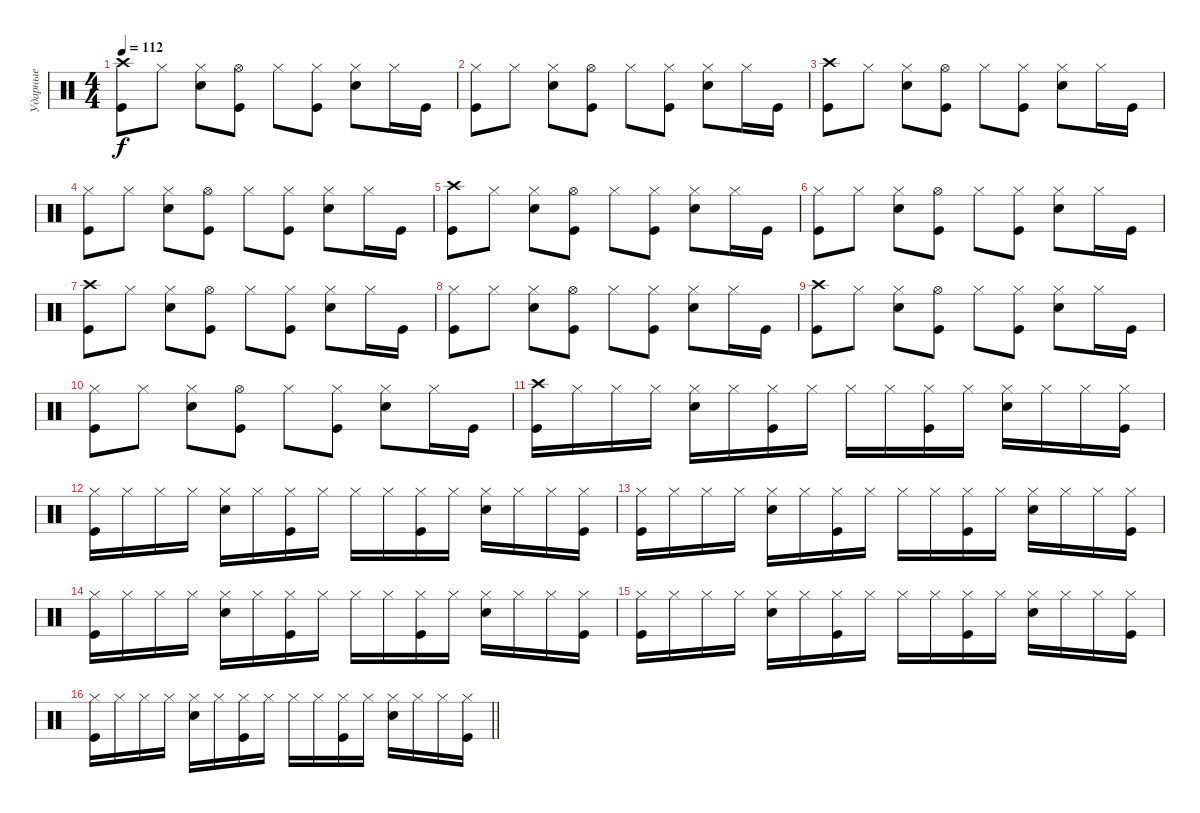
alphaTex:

\track ("Ударные" "Ударные") {instrument percussion}
\staff {score}
\articulation defaults
\ts (4 4)
\tempo 112
\clef neutral
\ks c
("Crash high (hit)" "Kick (hit)").8{dy f} "Hi-Hat (closed)".8 ("Hi-Hat (closed)" "Electric Snare (hit)").8 ("Hi-Hat (open)" "Kick (hit)").8 "Hi-Hat (closed)".8 ("Hi-Hat (closed)" "Kick (hit)").8 ("Hi-Hat (closed)" "Electric Snare (hit)").8 "Hi-Hat (closed)".16 "Kick (hit)".16 |
("Hi-Hat (closed)" "Kick (hit)").8 "Hi-Hat (closed)".8 ("Hi-Hat (closed)" "Electric Snare (hit)").8 ("Hi-Hat (open)" "Kick (hit)").8 "Hi-Hat (closed)".8 ("Hi-Hat (closed)" "Kick (hit)").8 ("Hi-Hat (closed)" "Electric Snare (hit)").8 "Hi-Hat (closed)".16 "Kick (hit)".16 |
("Crash high (hit)" "Kick (hit)").8 "Hi-Hat (closed)".8 ("Hi-Hat (closed)" "Electric Snare (hit)").8 ("Hi-Hat (open)" "Kick (hit)").8 "Hi-Hat (closed)".8 ("Hi-Hat (closed)" "Kick (hit)").8 ("Hi-Hat (closed)" "Electric Snare (hit)").8 "Hi-Hat (closed)".16 "Kick (hit)".16 |
("Hi-Hat (closed)" "Kick (hit)").8 "Hi-Hat (closed)".8 ("Hi-Hat (closed)" "Electric Snare (hit)").8 ("Hi-Hat (open)" "Kick (hit)").8 "Hi-Hat (closed)".8 ("Hi-Hat (closed)" "Kick (hit)").8 ("Hi-Hat (closed)" "Electric Snare (hit)").8 "Hi-Hat (closed)".16 "Kick (hit)".16 |
("Crash high (hit)" "Kick (hit)").8 "Hi-Hat (closed)".8 ("Hi-Hat (closed)" "Electric Snare (hit)").8 ("Hi-Hat (open)" "Kick (hit)").8 "Hi-Hat (closed)".8 ("Hi-Hat (closed)" "Kick (hit)").8 ("Hi-Hat (closed)" "Electric Snare (hit)").8 "Hi-Hat (closed)".16 "Kick (hit)".16 |
("Hi-Hat (closed)" "Kick (hit)").8 "Hi-Hat (closed)".8 ("Hi-Hat (closed)" "Electric Snare (hit)").8 ("Hi-Hat (open)" "Kick (hit)").8 "Hi-Hat (closed)".8 ("Hi-Hat (closed)" "Kick (hit)").8 ("Hi-Hat (closed)" "Electric Snare (hit)").8 "Hi-Hat (closed)".16 "Kick (hit)".16 |
("Crash high (hit)" "Kick (hit)").8 "Hi-Hat (closed)".8 ("Hi-Hat (closed)" "Electric Snare (hit)").8 ("Hi-Hat (open)" "Kick (hit)").8 "Hi-Hat (closed)".8 ("Hi-Hat (closed)" "Kick (hit)").8 ("Hi-Hat (closed)" "Electric Snare (hit)").8 "Hi-Hat (closed)".16 "Kick (hit)".16 |
("Hi-Hat (closed)" "Kick (hit)").8 "Hi-Hat (closed)".8 ("Hi-Hat (closed)" "Electric Snare (hit)").8 ("Hi-Hat (open)" "Kick (hit)").8 "Hi-Hat (closed)".8 ("Hi-Hat (closed)" "Kick (hit)").8 ("Hi-Hat (closed)" "Electric Snare (hit)").8 "Hi-Hat (closed)".16 "Kick (hit)".16 |
("Crash high (hit)" "Kick (hit)").8 "Hi-Hat (closed)".8 ("Hi-Hat (closed)" "Electric Snare (hit)").8 ("Hi-Hat (open)" "Kick (hit)").8 "Hi-Hat (closed)".8 ("Hi-Hat (closed)" "Kick (hit)").8 ("Hi-Hat (closed)" "Electric Snare (hit)").8 "Hi-Hat (closed)".16 "Kick (hit)".16 |
("Hi-Hat (closed)" "Kick (hit)").8 "Hi-Hat (closed)".8 ("Hi-Hat (closed)" "Electric Snare (hit)").8 ("Hi-Hat (open)" "Kick (hit)").8 "Hi-Hat (closed)".8 ("Hi-Hat (closed)" "Kick (hit)").8 ("Hi-Hat (closed)" "Electric Snare (hit)").8 "Hi-Hat (closed)".16 "Kick (hit)".16 |
("Crash high (hit)" "Kick (hit)").16 "Hi-Hat (closed)".16 "Hi-Hat (closed)".16 "Hi-Hat (closed)".16 ("Hi-Hat (closed)" "Electric Snare (hit)").16 "Hi-Hat (closed)".16 ("Hi-Hat (closed)" "Kick (hit)").16 "Hi-Hat (closed)".16 "Hi-Hat (closed)".16 "Hi-Hat (closed)".16 ("Hi-Hat (closed)" "Kick (hit)").16 "Hi-Hat (closed)".16 ("Hi-Hat (closed)" "Electric Snare (hit)").16 "Hi-Hat (closed)".16 "Hi-Hat (closed)".16 ("Hi-Hat (closed)" "Kick (hit)").16 |
("Hi-Hat (closed)" "Kick (hit)").16 "Hi-Hat (closed)".16 "Hi-Hat (closed)".16 "Hi-Hat (closed)".16 ("Hi-Hat (closed)" "Electric Snare (hit)").16 "Hi-Hat (closed)".16 ("Hi-Hat (closed)" "Kick (hit)").16 "Hi-Hat (closed)".16 "Hi-Hat (closed)".16 "Hi-Hat (closed)".16 ("Hi-Hat (closed)" "Kick (hit)").16 "Hi-Hat (closed)".16 ("Hi-Hat (closed)" "Electric Snare (hit)").16 "Hi-Hat (closed)".16 "Hi-Hat (closed)".16 ("Hi-Hat (closed)" "Kick (hit)").16 |
("Hi-Hat (closed)" "Kick (hit)").16 "Hi-Hat (closed)".16 "Hi-Hat (closed)".16 "Hi-Hat (closed)".16 ("Hi-Hat (closed)" "Electric Snare (hit)").16 "Hi-Hat (closed)".16 ("Hi-Hat (closed)" "Kick (hit)").16 "Hi-Hat (closed)".16 "Hi-Hat (closed)".16 "Hi-Hat (closed)".16 ("Hi-Hat (closed)" "Kick (hit)").16 "Hi-Hat (closed)".16 ("Hi-Hat (closed)" "Electric Snare (hit)").16 "Hi-Hat (closed)".16 "Hi-Hat (closed)".16 ("Hi-Hat (closed)" "Kick (hit)").16 |
("Hi-Hat (closed)" "Kick (hit)").16 "Hi-Hat (closed)".16 "Hi-Hat (closed)".16 "Hi-Hat (closed)".16 ("Hi-Hat (closed)" "Electric Snare (hit)").16 "Hi-Hat (closed)".16 ("Hi-Hat (closed)" "Kick (hit)").16 "Hi-Hat (closed)".16 "Hi-Hat (closed)".16 "Hi-Hat (closed)".16 ("Hi-Hat (closed)" "Kick (hit)").16 "Hi-Hat (closed)".16 ("Hi-Hat (closed)" "Electric Snare (hit)").16 "Hi-Hat (closed)".16 "Hi-Hat (closed)".16 ("Hi-Hat (closed)" "Kick (hit)").16 |
("Hi-Hat (closed)" "Kick (hit)").16 "Hi-Hat (closed)".16 "Hi-Hat (closed)".16 "Hi-Hat (closed)".16 ("Hi-Hat (closed)" "Electric Snare (hit)").16 "Hi-Hat (closed)".16 ("Hi-Hat (closed)" "Kick (hit)").16 "Hi-Hat (closed)".16 "Hi-Hat (closed)".16 "Hi-Hat (closed)".16 ("Hi-Hat (closed)" "Kick (hit)").16 "Hi-Hat (closed)".16 ("Hi-Hat (closed)" "Electric Snare (hit)").16 "Hi-Hat (closed)".16 "Hi-Hat (closed)".16 ("Hi-Hat (closed)" "Kick (hit)").16 |
\barLineRight lightlight
("Hi-Hat (closed)" "Kick (hit)").16 "Hi-Hat (closed)".16 "Hi-Hat (closed)".16 "Hi-Hat (closed)".16 ("Hi-Hat (closed)" "Electric Snare (hit)").16 "Hi-Hat (closed)".16 ("Hi-Hat (closed)" "Kick (hit)").16 "Hi-Hat (closed)".16 "Hi-Hat (closed)".16 "Hi-Hat (closed)".16 ("Hi-Hat (closed)" "Kick (hit)").16 "Hi-Hat (closed)".16 ("Hi-Hat (closed)" "Electric Snare (hit)").16 "Hi-Hat (closed)".16 "Hi-Hat (closed)".16 ("Hi-Hat (closed)" "Kick (hit)").16
